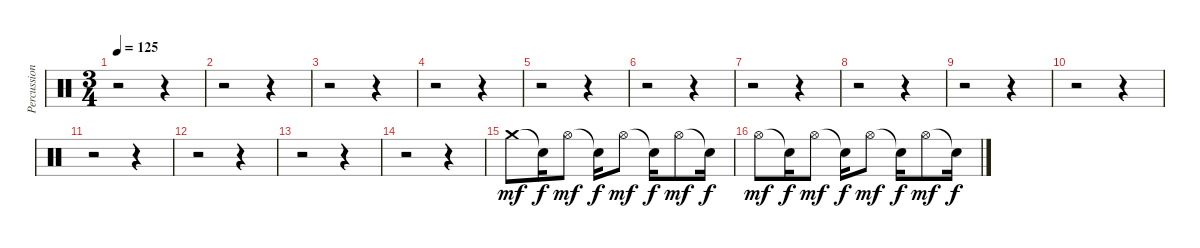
\track ("Percussion2" "Percussion") {instrument percussion}
\staff {score}
\articulation defaults
\ts (3 4)
\tempo 125
\clef neutral
\ks c
r.2{dy mf} r.4 |
r.2 r.4 |
r.2 r.4 |
r.2 r.4 |
r.2 r.4 |
r.2 r.4 |
r.2 r.4 |
r.2 r.4 |
r.2 r.4 |
r.2 r.4 |
r.2 r.4 |
r.2 r.4 |
r.2 r.4 |
r.2 r.4 |
"Crash medium (hit)".8 "Snare (hit)"{t}.16{dy f} "Hi-Hat (open)".8{dy mf} "Snare (hit)"{t}.16{dy f} "Hi-Hat (open)".8{dy mf} "Snare (hit)"{t}.16{dy f} "Hi-Hat (open)".8{dy mf} "Snare (hit)"{t}.16{dy f} |
"Hi-Hat (open)".8{dy mf} "Snare (hit)"{t}.16{dy f} "Hi-Hat (open)".8{dy mf} "Snare (hit)"{t}.16{dy f} "Hi-Hat (open)".8{dy mf} "Snare (hit)"{t}.16{dy f} "Hi-Hat (open)".8{dy mf} "Snare (hit)"{t}.16{dy f}
